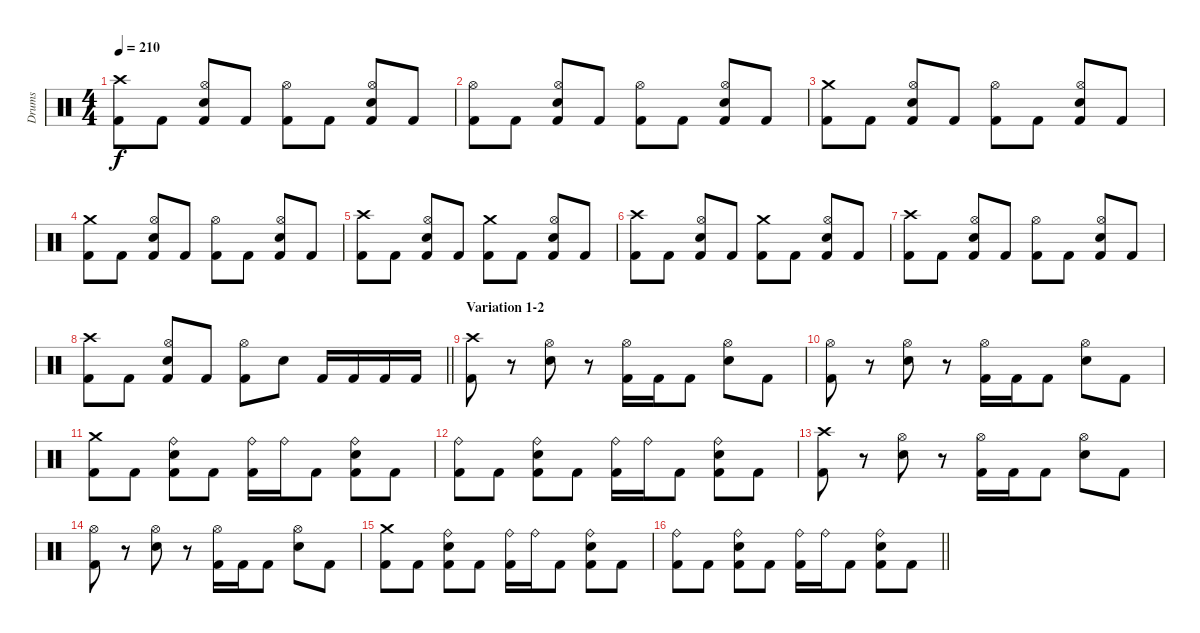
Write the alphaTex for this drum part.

\track ("Drums" "Drums") {instrument percussion}
\staff {score}
\articulation defaults
\ts (4 4)
\tempo 210
\clef neutral
\ks c
("Crash high (hit)" "Kick (hit) 2").8{dy f} "Kick (hit) 2".8 ("Hi-Hat (open)" "Snare (hit) 2" "Kick (hit) 2").8 "Kick (hit) 2".8 ("Hi-Hat (open)" "Kick (hit) 2").8 "Kick (hit) 2".8 ("Hi-Hat (open)" "Snare (hit) 2" "Kick (hit) 2").8 "Kick (hit) 2".8 |
("Hi-Hat (open)" "Kick (hit) 2").8 "Kick (hit) 2".8 ("Hi-Hat (open)" "Snare (hit) 2" "Kick (hit) 2").8 "Kick (hit) 2".8 ("Hi-Hat (open)" "Kick (hit) 2").8 "Kick (hit) 2".8 ("Hi-Hat (open)" "Snare (hit) 2" "Kick (hit) 2").8 "Kick (hit) 2".8 |
("Crash medium (hit)" "Kick (hit) 2").8 "Kick (hit) 2".8 ("Hi-Hat (open)" "Snare (hit) 2" "Kick (hit) 2").8 "Kick (hit) 2".8 ("Hi-Hat (open)" "Kick (hit) 2").8 "Kick (hit) 2".8 ("Hi-Hat (open)" "Snare (hit) 2" "Kick (hit) 2").8 "Kick (hit) 2".8 |
("Crash medium (hit)" "Kick (hit) 2").8 "Kick (hit) 2".8 ("Hi-Hat (open)" "Snare (hit) 2" "Kick (hit) 2").8 "Kick (hit) 2".8 ("Hi-Hat (open)" "Kick (hit) 2").8 "Kick (hit) 2".8 ("Hi-Hat (open)" "Snare (hit) 2" "Kick (hit) 2").8 "Kick (hit) 2".8 |
("Crash high (hit)" "Kick (hit) 2").8 "Kick (hit) 2".8 ("Hi-Hat (open)" "Snare (hit) 2" "Kick (hit) 2").8 "Kick (hit) 2".8 ("Crash medium (hit)" "Kick (hit) 2").8 "Kick (hit) 2".8 ("Hi-Hat (open)" "Snare (hit) 2" "Kick (hit) 2").8 "Kick (hit) 2".8 |
("Crash high (hit)" "Kick (hit) 2").8 "Kick (hit) 2".8 ("Hi-Hat (open)" "Snare (hit) 2" "Kick (hit) 2").8 "Kick (hit) 2".8 ("Crash medium (hit)" "Kick (hit) 2").8 "Kick (hit) 2".8 ("Hi-Hat (open)" "Snare (hit) 2" "Kick (hit) 2").8 "Kick (hit) 2".8 |
("Crash high (hit)" "Kick (hit) 2").8 "Kick (hit) 2".8 ("Hi-Hat (open)" "Snare (hit) 2" "Kick (hit) 2").8 "Kick (hit) 2".8 ("Hi-Hat (open)" "Kick (hit) 2").8 "Kick (hit) 2".8 ("Hi-Hat (open)" "Snare (hit) 2" "Kick (hit) 2").8 "Kick (hit) 2".8 |
\barLineRight lightlight
("Crash high (hit)" "Kick (hit) 2").8 "Kick (hit) 2".8 ("Hi-Hat (open)" "Snare (hit) 2" "Kick (hit) 2").8 "Kick (hit) 2".8 ("Hi-Hat (open)" "Kick (hit) 2").8 "Snare (hit) 2".8 "Kick (hit) 2".16 "Kick (hit) 2".16 "Kick (hit) 2".16 "Kick (hit) 2".16 |
\section ("" "Variation 1-2")
("Crash high (hit)" "Kick (hit) 2").8 r.8 ("Hi-Hat (open)" "Snare (hit) 2").8 r.8 ("Hi-Hat (open)" "Kick (hit) 2").16 "Kick (hit) 2".16 "Kick (hit) 2".8 ("Hi-Hat (open)" "Snare (hit) 2").8 "Kick (hit) 2".8 |
("Hi-Hat (open)" "Kick (hit) 2").8 r.8 ("Hi-Hat (open)" "Snare (hit) 2").8 r.8 ("Hi-Hat (open)" "Kick (hit) 2").16 "Kick (hit) 2".16 "Kick (hit) 2".8 ("Hi-Hat (open)" "Snare (hit) 2").8 "Kick (hit) 2".8 |
("Crash medium (hit)" "Kick (hit) 2").8 "Kick (hit) 2".8 ("Ride (bell)" "Snare (hit) 2" "Kick (hit) 2").8 "Kick (hit) 2".8 ("Ride (bell)" "Kick (hit) 2").16 "Ride (bell)".16 "Kick (hit) 2".8 ("Ride (bell)" "Snare (hit) 2" "Kick (hit) 2").8 "Kick (hit) 2".8 |
("Ride (bell)" "Kick (hit) 2").8 "Kick (hit) 2".8 ("Ride (bell)" "Snare (hit) 2" "Kick (hit) 2").8 "Kick (hit) 2".8 ("Ride (bell)" "Kick (hit) 2").16 "Ride (bell)".16 "Kick (hit) 2".8 ("Ride (bell)" "Snare (hit) 2" "Kick (hit) 2").8 "Kick (hit) 2".8 |
("Crash high (hit)" "Kick (hit) 2").8 r.8 ("Hi-Hat (open)" "Snare (hit) 2").8 r.8 ("Hi-Hat (open)" "Kick (hit) 2").16 "Kick (hit) 2".16 "Kick (hit) 2".8 ("Hi-Hat (open)" "Snare (hit) 2").8 "Kick (hit) 2".8 |
("Hi-Hat (open)" "Kick (hit) 2").8 r.8 ("Hi-Hat (open)" "Snare (hit) 2").8 r.8 ("Hi-Hat (open)" "Kick (hit) 2").16 "Kick (hit) 2".16 "Kick (hit) 2".8 ("Hi-Hat (open)" "Snare (hit) 2").8 "Kick (hit) 2".8 |
("Crash medium (hit)" "Kick (hit) 2").8 "Kick (hit) 2".8 ("Ride (bell)" "Snare (hit) 2" "Kick (hit) 2").8 "Kick (hit) 2".8 ("Ride (bell)" "Kick (hit) 2").16 "Ride (bell)".16 "Kick (hit) 2".8 ("Ride (bell)" "Snare (hit) 2" "Kick (hit) 2").8 "Kick (hit) 2".8 |
\barLineRight lightlight
("Ride (bell)" "Kick (hit) 2").8 "Kick (hit) 2".8 ("Ride (bell)" "Snare (hit) 2" "Kick (hit) 2").8 "Kick (hit) 2".8 ("Ride (bell)" "Kick (hit) 2").16 "Ride (bell)".16 "Kick (hit) 2".8 ("Ride (bell)" "Snare (hit) 2" "Kick (hit) 2").8 "Kick (hit) 2".8
